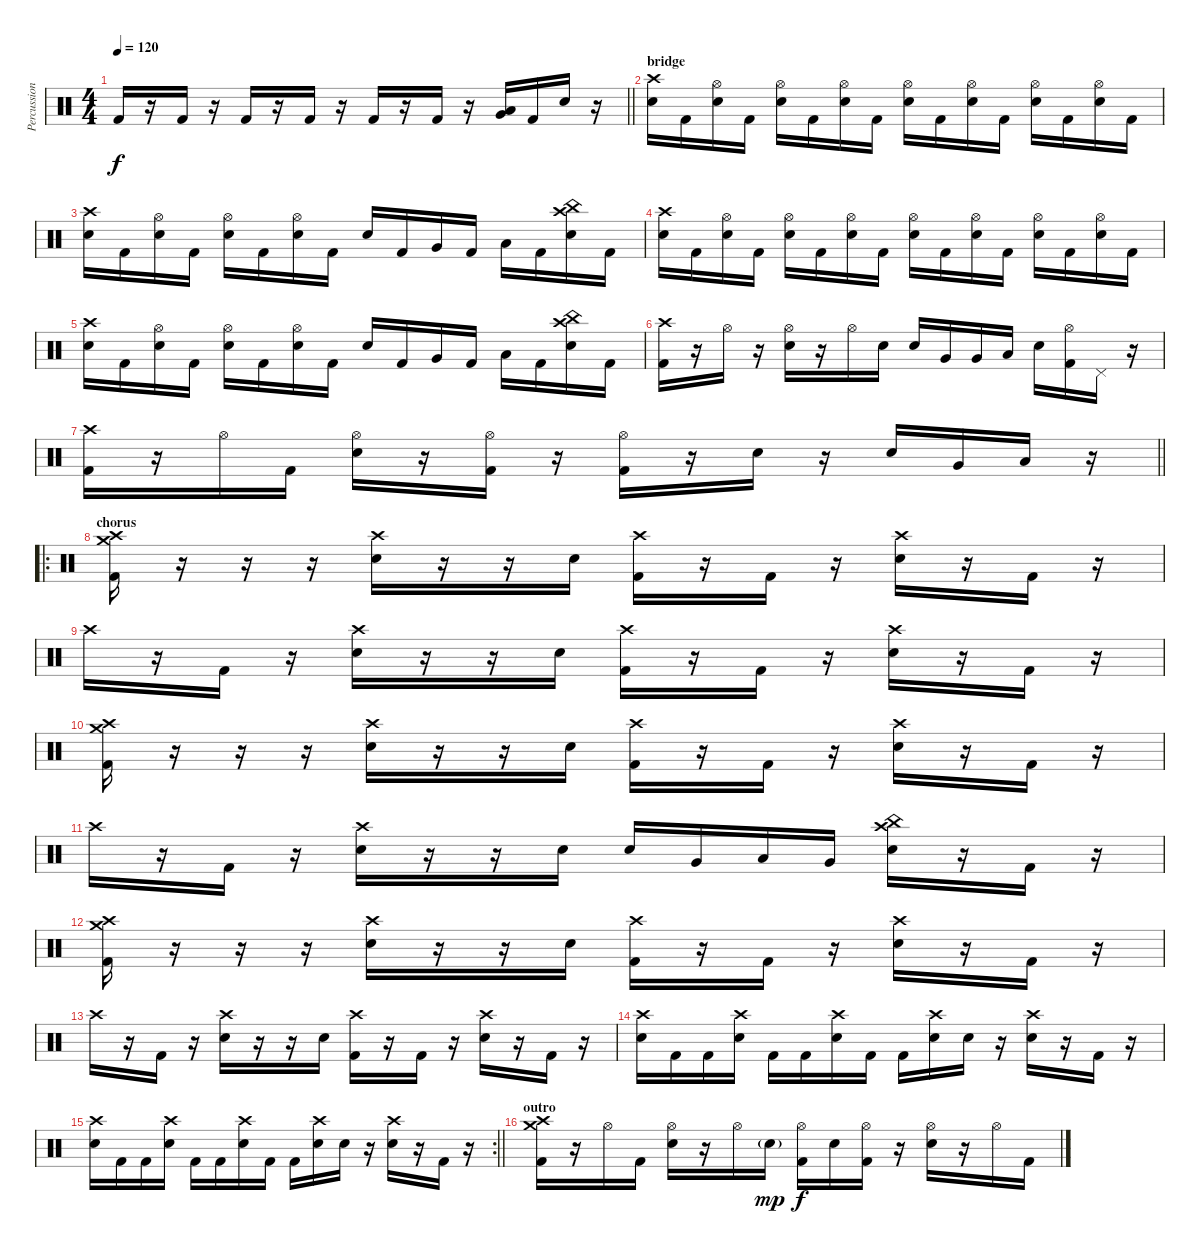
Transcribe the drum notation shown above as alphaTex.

\track ("Percussion" "Percussion") {instrument percussion}
\staff {score}
\articulation defaults
\ts (4 4)
\tempo 120
\clef neutral
\barLineRight lightlight
\ks c "Kick (hit) 2".16{dy f}
r.16 "Kick (hit) 2".16 r.16 "Kick (hit) 2".16 r.16 "Kick (hit) 2".16 r.16 "Kick (hit) 2".16 r.16 "Kick (hit) 2".16 r.16 ("Very Low Tom (hit)" "Low Floor Tom (hit)").16 "Kick (hit) 2".16 "Electric Snare (hit)".16 r.16 |
\section ("" "bridge")
("Crash high (hit)" "Electric Snare (hit)").16 "Kick (hit) 2".16 ("Hi-Hat (open)" "Electric Snare (hit)").16 "Kick (hit) 2".16 ("Hi-Hat (open)" "Electric Snare (hit)").16 "Kick (hit) 2".16 ("Hi-Hat (open)" "Electric Snare (hit)").16 "Kick (hit) 2".16 ("Hi-Hat (open)" "Electric Snare (hit)").16 "Kick (hit) 2".16 ("Hi-Hat (open)" "Electric Snare (hit)").16 "Kick (hit) 2".16 ("Hi-Hat (open)" "Electric Snare (hit)").16 "Kick (hit) 2".16 ("Hi-Hat (open)" "Electric Snare (hit)").16 "Kick (hit) 2".16 |
("Crash high (hit)" "Electric Snare (hit)").16 "Kick (hit) 2".16 ("Hi-Hat (open)" "Electric Snare (hit)").16 "Kick (hit) 2".16 ("Hi-Hat (open)" "Electric Snare (hit)").16 "Kick (hit) 2".16 ("Hi-Hat (open)" "Electric Snare (hit)").16 "Kick (hit) 2".16 "Electric Snare (hit)".16 "Kick (hit) 2".16 "Very Low Tom (hit)".16 "Kick (hit) 2".16 "Low Floor Tom (hit)".16 "Kick (hit) 2".16 ("China (hit)" "Crash high (hit)" "Electric Snare (hit)").16 "Kick (hit) 2".16 |
("Crash high (hit)" "Electric Snare (hit)").16 "Kick (hit) 2".16 ("Hi-Hat (open)" "Electric Snare (hit)").16 "Kick (hit) 2".16 ("Hi-Hat (open)" "Electric Snare (hit)").16 "Kick (hit) 2".16 ("Hi-Hat (open)" "Electric Snare (hit)").16 "Kick (hit) 2".16 ("Hi-Hat (open)" "Electric Snare (hit)").16 "Kick (hit) 2".16 ("Hi-Hat (open)" "Electric Snare (hit)").16 "Kick (hit) 2".16 ("Hi-Hat (open)" "Electric Snare (hit)").16 "Kick (hit) 2".16 ("Hi-Hat (open)" "Electric Snare (hit)").16 "Kick (hit) 2".16 |
("Crash high (hit)" "Electric Snare (hit)").16 "Kick (hit) 2".16 ("Hi-Hat (open)" "Electric Snare (hit)").16 "Kick (hit) 2".16 ("Hi-Hat (open)" "Electric Snare (hit)").16 "Kick (hit) 2".16 ("Hi-Hat (open)" "Electric Snare (hit)").16 "Kick (hit) 2".16 "Electric Snare (hit)".16 "Kick (hit) 2".16 "Very Low Tom (hit)".16 "Kick (hit) 2".16 "Low Floor Tom (hit)".16 "Kick (hit) 2".16 ("China (hit)" "Crash high (hit)" "Electric Snare (hit)").16 "Kick (hit) 2".16 |
("Crash high (hit)" "Kick (hit) 2").16 r.16 "Hi-Hat (open)".16 r.16 ("Hi-Hat (open)" "Electric Snare (hit)").16 r.16 "Hi-Hat (open)".16 "Electric Snare (hit)".16 "Electric Snare (hit)".16 "Very Low Tom (hit)".16 "Very Low Tom (hit)".16 "Low Floor Tom (hit)".16 "Electric Snare (hit)".16 ("Hi-Hat (open)" "Kick (hit) 2").16 "Pedal Hi-Hat (hit)".16 r.16 |
\barLineRight lightlight
("Crash high (hit)" "Kick (hit) 2").16 r.16 "Hi-Hat (open)".16 "Kick (hit) 2".16 ("Hi-Hat (open)" "Electric Snare (hit)").16 r.16 ("Hi-Hat (open)" "Kick (hit) 2").16 r.16 ("Hi-Hat (open)" "Kick (hit) 2").16 r.16 "Electric Snare (hit)".16 r.16 "Electric Snare (hit)".16 "Very Low Tom (hit)".16 "Low Floor Tom (hit)".16 r.16 |
\ro
\section ("" "chorus")
("Crash medium (hit)" "Crash high (hit)" "Kick (hit) 2").16 r.16 r.16 r.16 ("Crash high (hit)" "Electric Snare (hit)").16 r.16 r.16 "Electric Snare (hit)".16 ("Crash high (hit)" "Kick (hit) 2").16 r.16 "Kick (hit) 2".16 r.16 ("Crash high (hit)" "Electric Snare (hit)").16 r.16 "Kick (hit) 2".16 r.16 |
"Crash high (hit)".16 r.16 "Kick (hit) 2".16 r.16 ("Crash high (hit)" "Electric Snare (hit)").16 r.16 r.16 "Electric Snare (hit)".16 ("Crash high (hit)" "Kick (hit) 2").16 r.16 "Kick (hit) 2".16 r.16 ("Crash high (hit)" "Electric Snare (hit)").16 r.16 "Kick (hit) 2".16 r.16 |
("Crash medium (hit)" "Crash high (hit)" "Kick (hit) 2").16 r.16 r.16 r.16 ("Crash high (hit)" "Electric Snare (hit)").16 r.16 r.16 "Electric Snare (hit)".16 ("Crash high (hit)" "Kick (hit) 2").16 r.16 "Kick (hit) 2".16 r.16 ("Crash high (hit)" "Electric Snare (hit)").16 r.16 "Kick (hit) 2".16 r.16 |
"Crash high (hit)".16 r.16 "Kick (hit) 2".16 r.16 ("Crash high (hit)" "Electric Snare (hit)").16 r.16 r.16 "Electric Snare (hit)".16 "Electric Snare (hit)".16 "Very Low Tom (hit)".16 "Low Floor Tom (hit)".16 "Very Low Tom (hit)".16 ("China (hit)" "Crash high (hit)" "Electric Snare (hit)").16 r.16 "Kick (hit) 2".16 r.16 |
("Crash medium (hit)" "Crash high (hit)" "Kick (hit) 2").16 r.16 r.16 r.16 ("Crash high (hit)" "Electric Snare (hit)").16 r.16 r.16 "Electric Snare (hit)".16 ("Crash high (hit)" "Kick (hit) 2").16 r.16 "Kick (hit) 2".16 r.16 ("Crash high (hit)" "Electric Snare (hit)").16 r.16 "Kick (hit) 2".16 r.16 |
"Crash high (hit)".16 r.16 "Kick (hit) 2".16 r.16 ("Crash high (hit)" "Electric Snare (hit)").16 r.16 r.16 "Electric Snare (hit)".16 ("Crash high (hit)" "Kick (hit) 2").16 r.16 "Kick (hit) 2".16 r.16 ("Crash high (hit)" "Electric Snare (hit)").16 r.16 "Kick (hit) 2".16 r.16 |
("Crash high (hit)" "Electric Snare (hit)").16 "Kick (hit) 2".16 "Kick (hit) 2".16 ("Crash high (hit)" "Electric Snare (hit)").16 "Kick (hit) 2".16 "Kick (hit) 2".16 ("Crash high (hit)" "Electric Snare (hit)").16 "Kick (hit) 2".16 "Kick (hit) 2".16 ("Crash high (hit)" "Electric Snare (hit)").16 "Electric Snare (hit)".16 r.16 ("Crash high (hit)" "Electric Snare (hit)").16 r.16 "Kick (hit) 2".16 r.16 |
\rc 2
\barLineRight lightlight
("Crash high (hit)" "Electric Snare (hit)").16 "Kick (hit) 2".16 "Kick (hit) 2".16 ("Crash high (hit)" "Electric Snare (hit)").16 "Kick (hit) 2".16 "Kick (hit) 2".16 ("Crash high (hit)" "Electric Snare (hit)").16 "Kick (hit) 2".16 "Kick (hit) 2".16 ("Crash high (hit)" "Electric Snare (hit)").16 "Electric Snare (hit)".16 r.16 ("Crash high (hit)" "Electric Snare (hit)").16 r.16 "Kick (hit) 2".16 r.16 |
\section ("" "outro")
("Crash medium (hit)" "Crash high (hit)" "Kick (hit) 2").16 r.16 "Hi-Hat (open)".16 "Kick (hit) 2".16 ("Hi-Hat (open)" "Electric Snare (hit)").16 r.16 "Hi-Hat (open)".16 "Electric Snare (hit)"{g}.16{dy mp} ("Hi-Hat (open)" "Kick (hit) 2").16{dy f} "Electric Snare (hit)".16 ("Hi-Hat (open)" "Kick (hit) 2").16 r.16 ("Hi-Hat (open)" "Electric Snare (hit)").16 r.16 "Hi-Hat (open)".16 "Kick (hit) 2".16
